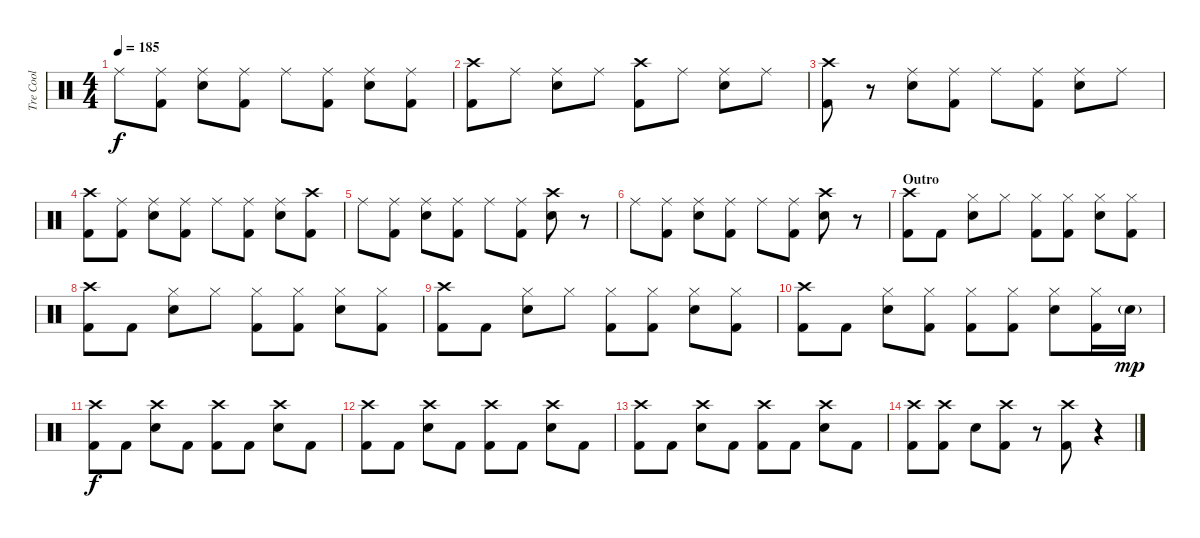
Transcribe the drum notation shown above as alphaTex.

\track ("Tre Cool" "Tre Cool") {instrument percussion}
\staff {score}
\articulation defaults
\ts (4 4)
\tempo 185
\clef neutral
\ks c "Ride (middle)".8{dy f}
("Ride (middle)" "Kick (hit) 2").8 ("Ride (middle)" "Electric Snare (hit)").8 ("Ride (middle)" "Kick (hit) 2").8 "Ride (middle)".8 ("Ride (middle)" "Kick (hit) 2").8 ("Ride (middle)" "Electric Snare (hit)").8 ("Ride (middle)" "Kick (hit) 2").8 |
("Crash high (hit)" "Kick (hit) 2").8 "Ride (middle)".8 ("Ride (middle)" "Electric Snare (hit)").8 "Ride (middle)".8 ("Crash high (hit)" "Kick (hit) 2").8 "Ride (middle)".8 ("Ride (middle)" "Electric Snare (hit)").8 "Ride (middle)".8 |
("Crash high (hit)" "Kick (hit) 2").8 r.8 ("Ride (middle)" "Electric Snare (hit)").8 ("Ride (middle)" "Kick (hit) 2").8 "Ride (middle)".8 ("Ride (middle)" "Kick (hit) 2").8 ("Ride (middle)" "Electric Snare (hit)").8 "Ride (middle)".8 |
("Crash high (hit)" "Kick (hit) 2").8 ("Ride (middle)" "Kick (hit) 2").8 ("Ride (middle)" "Electric Snare (hit)").8 ("Ride (middle)" "Kick (hit) 2").8 "Ride (middle)".8 ("Ride (middle)" "Kick (hit) 2").8 ("Ride (middle)" "Electric Snare (hit)").8 ("Crash high (hit)" "Kick (hit) 2").8 |
"Ride (middle)".8 ("Ride (middle)" "Kick (hit) 2").8 ("Ride (middle)" "Electric Snare (hit)").8 ("Ride (middle)" "Kick (hit) 2").8 "Ride (middle)".8 ("Ride (middle)" "Kick (hit) 2").8 ("Crash high (hit)" "Electric Snare (hit)").8 r.8 |
"Ride (middle)".8 ("Ride (middle)" "Kick (hit) 2").8 ("Ride (middle)" "Electric Snare (hit)").8 ("Ride (middle)" "Kick (hit) 2").8 "Ride (middle)".8 ("Ride (middle)" "Kick (hit) 2").8 ("Crash high (hit)" "Electric Snare (hit)").8 r.8 |
\section ("" "Outro")
("Crash high (hit)" "Kick (hit) 2").8 "Kick (hit) 2".8 ("Hi-Hat (closed)" "Electric Snare (hit)").8 "Hi-Hat (closed)".8 ("Hi-Hat (closed)" "Kick (hit) 2").8 ("Hi-Hat (closed)" "Kick (hit) 2").8 ("Hi-Hat (closed)" "Electric Snare (hit)").8 ("Hi-Hat (closed)" "Kick (hit) 2").8 |
("Crash high (hit)" "Kick (hit) 2").8 "Kick (hit) 2".8 ("Hi-Hat (closed)" "Electric Snare (hit)").8 "Hi-Hat (closed)".8 ("Hi-Hat (closed)" "Kick (hit) 2").8 ("Hi-Hat (closed)" "Kick (hit) 2").8 ("Hi-Hat (closed)" "Electric Snare (hit)").8 ("Hi-Hat (closed)" "Kick (hit) 2").8 |
("Crash high (hit)" "Kick (hit) 2").8 "Kick (hit) 2".8 ("Hi-Hat (closed)" "Electric Snare (hit)").8 "Hi-Hat (closed)".8 ("Hi-Hat (closed)" "Kick (hit) 2").8 ("Hi-Hat (closed)" "Kick (hit) 2").8 ("Hi-Hat (closed)" "Electric Snare (hit)").8 ("Hi-Hat (closed)" "Kick (hit) 2").8 |
("Crash high (hit)" "Kick (hit) 2").8 "Kick (hit) 2".8 ("Hi-Hat (closed)" "Electric Snare (hit)").8 ("Hi-Hat (closed)" "Kick (hit) 2").8 ("Hi-Hat (closed)" "Kick (hit) 2").8 ("Hi-Hat (closed)" "Kick (hit) 2").8 ("Hi-Hat (closed)" "Electric Snare (hit)").8 ("Hi-Hat (closed)" "Kick (hit) 2").16 "Electric Snare (hit)"{g}.16{dy mp} |
("Crash high (hit)" "Kick (hit) 2").8{dy f} "Kick (hit) 2".8 ("Crash high (hit)" "Electric Snare (hit)").8 "Kick (hit) 2".8 ("Crash high (hit)" "Kick (hit) 2").8 "Kick (hit) 2".8 ("Crash high (hit)" "Electric Snare (hit)").8 "Kick (hit) 2".8 |
("Crash high (hit)" "Kick (hit) 2").8 "Kick (hit) 2".8 ("Crash high (hit)" "Electric Snare (hit)").8 "Kick (hit) 2".8 ("Crash high (hit)" "Kick (hit) 2").8 "Kick (hit) 2".8 ("Crash high (hit)" "Electric Snare (hit)").8 "Kick (hit) 2".8 |
("Crash high (hit)" "Kick (hit) 2").8 "Kick (hit) 2".8 ("Crash high (hit)" "Electric Snare (hit)").8 "Kick (hit) 2".8 ("Crash high (hit)" "Kick (hit) 2").8 "Kick (hit) 2".8 ("Crash high (hit)" "Electric Snare (hit)").8 "Kick (hit) 2".8 |
("Crash high (hit)" "Kick (hit) 2").8 ("Crash high (hit)" "Kick (hit) 2").8 "Electric Snare (hit)".8 ("Crash high (hit)" "Kick (hit) 2").8 r.8 ("Crash high (hit)" "Kick (hit) 2").8 r.4
